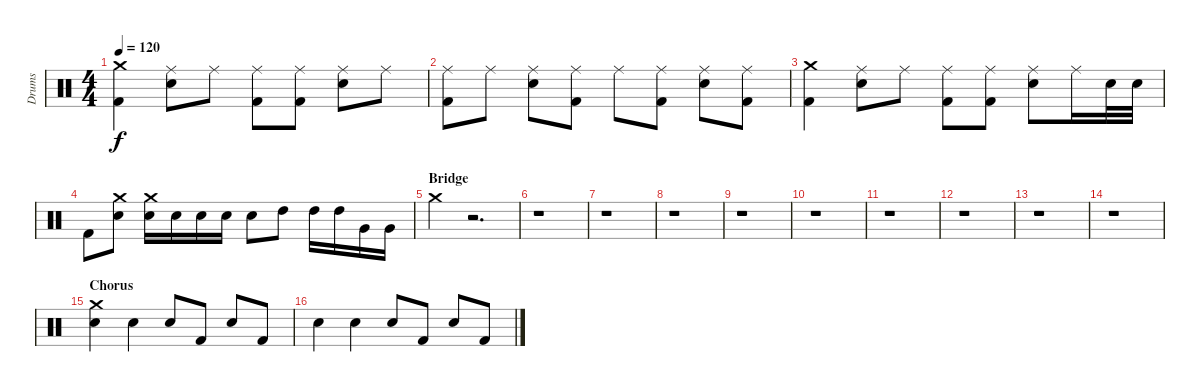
\track ("Drums" "Drums") {instrument percussion}
\staff {score}
\articulation defaults
\ts (4 4)
\tempo 120
\clef neutral
\ks c
("Crash medium (hit)" "Kick (hit) 2").4{dy f} ("Ride (middle)" "Snare (hit) 2").8 "Ride (middle)".8 ("Ride (middle)" "Kick (hit) 2").8 ("Ride (middle)" "Kick (hit) 2").8 ("Ride (middle)" "Snare (hit) 2").8 "Ride (middle)".8 |
("Ride (middle)" "Kick (hit) 2").8 "Ride (middle)".8 ("Ride (middle)" "Snare (hit) 2").8 ("Ride (middle)" "Kick (hit) 2").8 "Ride (middle)".8 ("Ride (middle)" "Kick (hit) 2").8 ("Ride (middle)" "Snare (hit) 2").8 ("Ride (middle)" "Kick (hit) 2").8 |
("Crash medium (hit)" "Kick (hit) 2").4 ("Ride (middle)" "Snare (hit) 2").8 "Ride (middle)".8 ("Ride (middle)" "Kick (hit) 2").8 ("Ride (middle)" "Kick (hit) 2").8 ("Ride (middle)" "Snare (hit) 2").8 "Ride (middle)".16 "Snare (hit) 2".32 "Snare (hit) 2".32 |
"Kick (hit) 2".8 ("Crash medium (hit)" "Snare (hit) 2").8 ("Crash medium (hit)" "Snare (hit) 2").16 "Snare (hit) 2".16 "Snare (hit) 2".16 "Snare (hit) 2".16 "Snare (hit) 2".8 "High Tom (hit)".8 "High Tom (hit)".16 "High Tom (hit)".16 "Very Low Tom (hit)".16 "Very Low Tom (hit)".16 |
\section ("" "Bridge")
"Crash medium (hit)".4 r.2{d} |
r.1 |
r.1 |
r.1 |
r.1 |
r.1 |
r.1 |
r.1 |
r.1 |
r.1 |
\section ("" "Chorus")
("Crash medium (hit)" "Snare (hit) 2").4 "Snare (hit) 2".4 "Snare (hit) 2".8 "Kick (hit) 2".8 "Snare (hit) 2".8 "Kick (hit) 2".8 |
"Snare (hit) 2".4 "Snare (hit) 2".4 "Snare (hit) 2".8 "Kick (hit) 2".8 "Snare (hit) 2".8 "Kick (hit) 2".8
